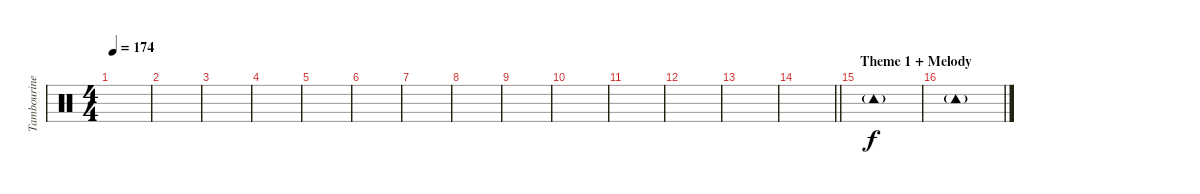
\track ("Tambourine" "Tambourine") {instrument percussion}
\staff {score}
\articulation defaults
\ts (4 4)
\tempo 174
\clef neutral
\ks c
|
|
|
|
|
|
|
|
|
|
|
|
|
\barLineRight lightlight
|
\section ("" "Theme 1 + Melody")
"Tambourine (hit)"{g}.1 |
"Tambourine (hit)"{g}.1
